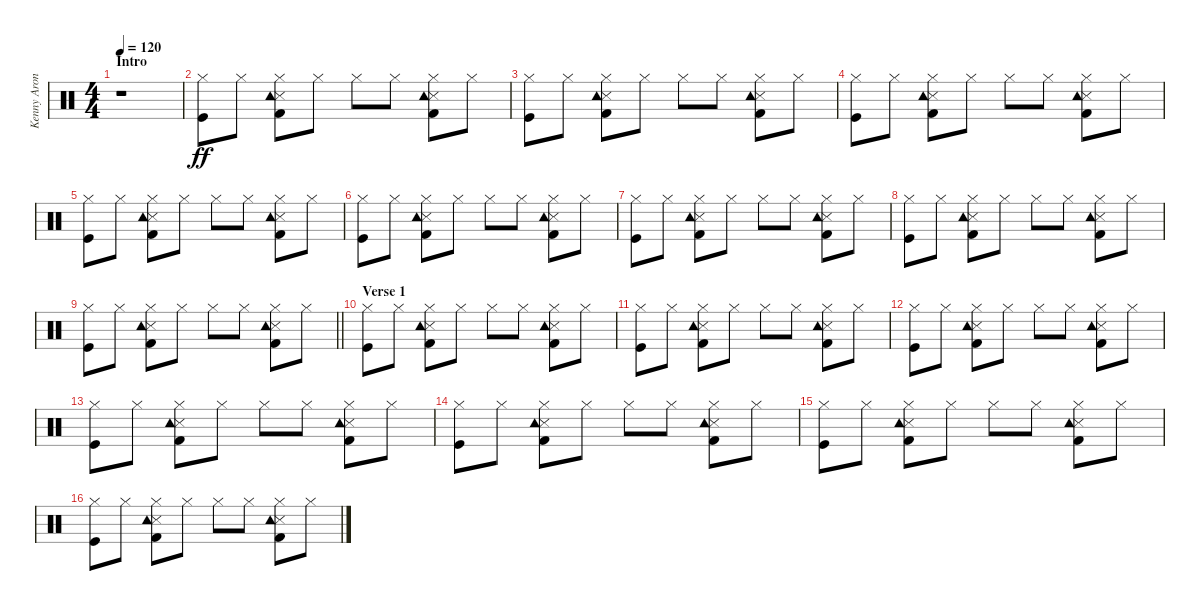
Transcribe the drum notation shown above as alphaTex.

\track ("Kenny Aronoff" "Kenny Aron") {instrument percussion}
\staff {score}
\articulation defaults
\ts (4 4)
\section ("" "Intro")
\tempo 120
\clef neutral
\ks c
r.1{dy ff} |
("Kick (hit)" "Hi-Hat (closed)").8 "Hi-Hat (closed)".8 ("Kick (hit) 2" "Snare (side stick) 3" "Hi-Hat (closed)" "Tambourine (hit)").8 "Hi-Hat (closed)".8 "Hi-Hat (closed)".8 "Hi-Hat (closed)".8 ("Kick (hit) 2" "Snare (side stick) 3" "Hi-Hat (closed)" "Tambourine (hit)").8 "Hi-Hat (closed)".8 |
("Kick (hit)" "Hi-Hat (closed)").8 "Hi-Hat (closed)".8 ("Kick (hit) 2" "Snare (side stick) 3" "Hi-Hat (closed)" "Tambourine (hit)").8 "Hi-Hat (closed)".8 "Hi-Hat (closed)".8 "Hi-Hat (closed)".8 ("Kick (hit) 2" "Snare (side stick) 3" "Hi-Hat (closed)" "Tambourine (hit)").8 "Hi-Hat (closed)".8 |
("Kick (hit)" "Hi-Hat (closed)").8 "Hi-Hat (closed)".8 ("Kick (hit) 2" "Snare (side stick) 3" "Hi-Hat (closed)" "Tambourine (hit)").8 "Hi-Hat (closed)".8 "Hi-Hat (closed)".8 "Hi-Hat (closed)".8 ("Kick (hit) 2" "Snare (side stick) 3" "Hi-Hat (closed)" "Tambourine (hit)").8 "Hi-Hat (closed)".8 |
("Kick (hit)" "Hi-Hat (closed)").8 "Hi-Hat (closed)".8 ("Kick (hit) 2" "Snare (side stick) 3" "Hi-Hat (closed)" "Tambourine (hit)").8 "Hi-Hat (closed)".8 "Hi-Hat (closed)".8 "Hi-Hat (closed)".8 ("Kick (hit) 2" "Snare (side stick) 3" "Hi-Hat (closed)" "Tambourine (hit)").8 "Hi-Hat (closed)".8 |
("Kick (hit)" "Hi-Hat (closed)").8 "Hi-Hat (closed)".8 ("Kick (hit) 2" "Snare (side stick) 3" "Hi-Hat (closed)" "Tambourine (hit)").8 "Hi-Hat (closed)".8 "Hi-Hat (closed)".8 "Hi-Hat (closed)".8 ("Kick (hit) 2" "Snare (side stick) 3" "Hi-Hat (closed)" "Tambourine (hit)").8 "Hi-Hat (closed)".8 |
("Kick (hit)" "Hi-Hat (closed)").8 "Hi-Hat (closed)".8 ("Kick (hit) 2" "Snare (side stick) 3" "Hi-Hat (closed)" "Tambourine (hit)").8 "Hi-Hat (closed)".8 "Hi-Hat (closed)".8 "Hi-Hat (closed)".8 ("Kick (hit) 2" "Snare (side stick) 3" "Hi-Hat (closed)" "Tambourine (hit)").8 "Hi-Hat (closed)".8 |
("Kick (hit)" "Hi-Hat (closed)").8 "Hi-Hat (closed)".8 ("Kick (hit) 2" "Snare (side stick) 3" "Hi-Hat (closed)" "Tambourine (hit)").8 "Hi-Hat (closed)".8 "Hi-Hat (closed)".8 "Hi-Hat (closed)".8 ("Kick (hit) 2" "Snare (side stick) 3" "Hi-Hat (closed)" "Tambourine (hit)").8 "Hi-Hat (closed)".8 |
\barLineRight lightlight
("Kick (hit)" "Hi-Hat (closed)").8 "Hi-Hat (closed)".8 ("Kick (hit) 2" "Snare (side stick) 3" "Hi-Hat (closed)" "Tambourine (hit)").8 "Hi-Hat (closed)".8 "Hi-Hat (closed)".8 "Hi-Hat (closed)".8 ("Kick (hit) 2" "Snare (side stick) 3" "Hi-Hat (closed)" "Tambourine (hit)").8 "Hi-Hat (closed)".8 |
\section ("" "Verse 1")
("Kick (hit)" "Hi-Hat (closed)").8 "Hi-Hat (closed)".8 ("Kick (hit) 2" "Snare (side stick) 3" "Hi-Hat (closed)" "Tambourine (hit)").8 "Hi-Hat (closed)".8 "Hi-Hat (closed)".8 "Hi-Hat (closed)".8 ("Kick (hit) 2" "Snare (side stick) 3" "Hi-Hat (closed)" "Tambourine (hit)").8 "Hi-Hat (closed)".8 |
("Kick (hit)" "Hi-Hat (closed)").8 "Hi-Hat (closed)".8 ("Kick (hit) 2" "Snare (side stick) 3" "Hi-Hat (closed)" "Tambourine (hit)").8 "Hi-Hat (closed)".8 "Hi-Hat (closed)".8 "Hi-Hat (closed)".8 ("Kick (hit) 2" "Snare (side stick) 3" "Hi-Hat (closed)" "Tambourine (hit)").8 "Hi-Hat (closed)".8 |
("Kick (hit)" "Hi-Hat (closed)").8 "Hi-Hat (closed)".8 ("Kick (hit) 2" "Snare (side stick) 3" "Hi-Hat (closed)" "Tambourine (hit)").8 "Hi-Hat (closed)".8 "Hi-Hat (closed)".8 "Hi-Hat (closed)".8 ("Kick (hit) 2" "Snare (side stick) 3" "Hi-Hat (closed)" "Tambourine (hit)").8 "Hi-Hat (closed)".8 |
("Kick (hit)" "Hi-Hat (closed)").8 "Hi-Hat (closed)".8 ("Kick (hit) 2" "Snare (side stick) 3" "Hi-Hat (closed)" "Tambourine (hit)").8 "Hi-Hat (closed)".8 "Hi-Hat (closed)".8 "Hi-Hat (closed)".8 ("Kick (hit) 2" "Snare (side stick) 3" "Hi-Hat (closed)" "Tambourine (hit)").8 "Hi-Hat (closed)".8 |
("Kick (hit)" "Hi-Hat (closed)").8 "Hi-Hat (closed)".8 ("Kick (hit) 2" "Snare (side stick) 3" "Hi-Hat (closed)" "Tambourine (hit)").8 "Hi-Hat (closed)".8 "Hi-Hat (closed)".8 "Hi-Hat (closed)".8 ("Kick (hit) 2" "Snare (side stick) 3" "Hi-Hat (closed)" "Tambourine (hit)").8 "Hi-Hat (closed)".8 |
("Kick (hit)" "Hi-Hat (closed)").8 "Hi-Hat (closed)".8 ("Kick (hit) 2" "Snare (side stick) 3" "Hi-Hat (closed)" "Tambourine (hit)").8 "Hi-Hat (closed)".8 "Hi-Hat (closed)".8 "Hi-Hat (closed)".8 ("Kick (hit) 2" "Snare (side stick) 3" "Hi-Hat (closed)" "Tambourine (hit)").8 "Hi-Hat (closed)".8 |
("Kick (hit)" "Hi-Hat (closed)").8 "Hi-Hat (closed)".8 ("Kick (hit) 2" "Snare (side stick) 3" "Hi-Hat (closed)" "Tambourine (hit)").8 "Hi-Hat (closed)".8 "Hi-Hat (closed)".8 "Hi-Hat (closed)".8 ("Kick (hit) 2" "Snare (side stick) 3" "Hi-Hat (closed)" "Tambourine (hit)").8 "Hi-Hat (closed)".8
